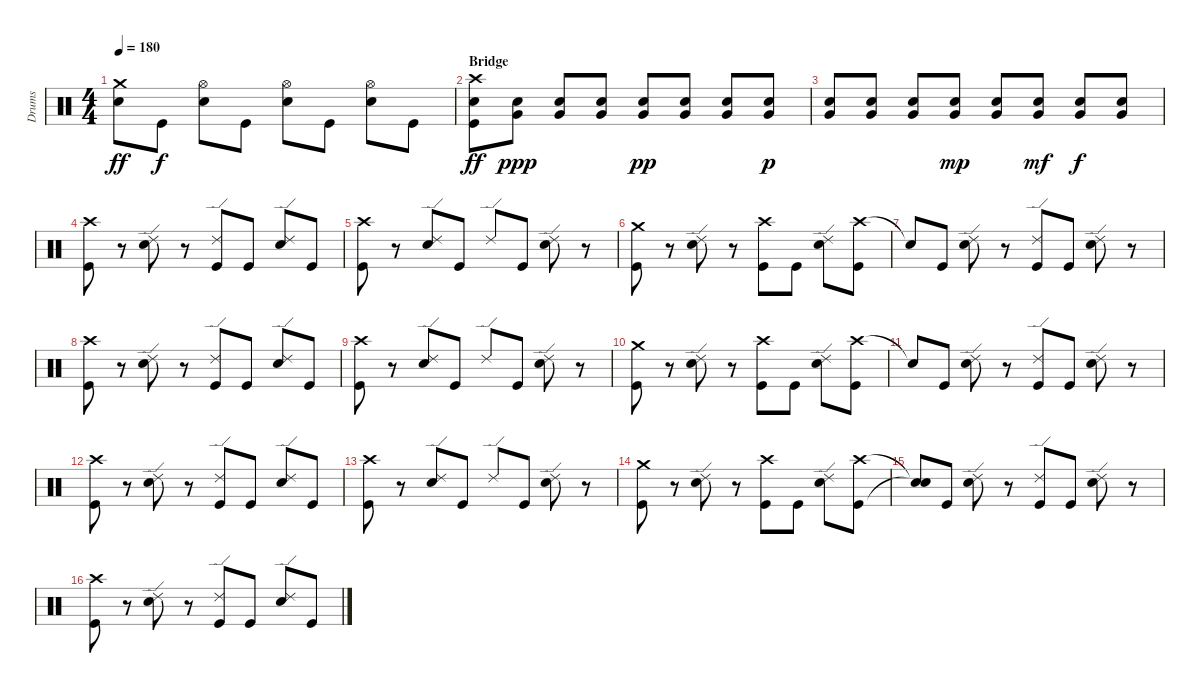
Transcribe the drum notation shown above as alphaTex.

\track ("Drums" "Drums") {instrument percussion}
\staff {score}
\articulation defaults
\ts (4 4)
\tempo 180
\clef neutral
\ks c
("Crash medium (hit)" "Snare (hit) 2").8{dy ff} "Kick (hit)".8{dy f} ("Hi-Hat (open)" "Snare (hit) 2").8 "Kick (hit)".8 ("Hi-Hat (open)" "Snare (hit) 2").8 "Kick (hit)".8 ("Hi-Hat (open)" "Snare (hit) 2").8 "Kick (hit)".8 |
\section ("" "Bridge")
("Crash high (hit)" "Snare (hit) 2" "Kick (hit)").8{dy ff} ("Very Low Tom (hit)" "Snare (hit) 2").8{dy ppp} ("Very Low Tom (hit)" "Snare (hit) 2").8 ("Very Low Tom (hit)" "Snare (hit) 2").8 ("Very Low Tom (hit)" "Snare (hit) 2").8{dy pp} ("Very Low Tom (hit)" "Snare (hit) 2").8 ("Very Low Tom (hit)" "Snare (hit) 2").8 ("Very Low Tom (hit)" "Snare (hit) 2").8{dy p} |
("Very Low Tom (hit)" "Snare (hit) 2").8 ("Very Low Tom (hit)" "Snare (hit) 2").8 ("Very Low Tom (hit)" "Snare (hit) 2").8 ("Very Low Tom (hit)" "Snare (hit) 2").8{dy mp} ("Very Low Tom (hit)" "Snare (hit) 2").8 ("Very Low Tom (hit)" "Snare (hit) 2").8{dy mf} ("Very Low Tom (hit)" "Snare (hit) 2").8{dy f} ("Very Low Tom (hit)" "Snare (hit) 2").8 |
("Crash high (hit)" "Kick (hit)").8 r.8 ("Ride (edge) 2" "Snare (hit) 2").8 r.8 ("Ride (edge) 2" "Kick (hit)").8 "Kick (hit)".8 ("Ride (edge) 2" "Snare (hit) 2").8 "Kick (hit)".8 |
("Crash high (hit)" "Kick (hit)").8 r.8 ("Ride (edge) 2" "Snare (hit) 2").8 "Kick (hit)".8 "Ride (edge) 2".8 "Kick (hit)".8 ("Ride (edge) 2" "Snare (hit) 2").8 r.8 |
("Crash medium (hit)" "Kick (hit)").8 r.8 ("Ride (edge) 2" "Snare (hit) 2").8 r.8 ("Crash high (hit)" "Kick (hit)").8 "Kick (hit)".8 ("Ride (edge) 2" "Snare (hit) 2").8 ("Crash high (hit)" "Kick (hit)").8 |
"Snare (hit)"{t}.8 "Kick (hit)".8 ("Ride (edge) 2" "Snare (hit) 2").8 r.8 ("Ride (edge) 2" "Kick (hit)").8 "Kick (hit)".8 ("Ride (edge) 2" "Snare (hit) 2").8 r.8 |
("Crash high (hit)" "Kick (hit)").8 r.8 ("Ride (edge) 2" "Snare (hit) 2").8 r.8 ("Ride (edge) 2" "Kick (hit)").8 "Kick (hit)".8 ("Ride (edge) 2" "Snare (hit) 2").8 "Kick (hit)".8 |
("Crash high (hit)" "Kick (hit)").8 r.8 ("Ride (edge) 2" "Snare (hit) 2").8 "Kick (hit)".8 "Ride (edge) 2".8 "Kick (hit)".8 ("Ride (edge) 2" "Snare (hit) 2").8 r.8 |
("Crash medium (hit)" "Kick (hit)").8 r.8 ("Ride (edge) 2" "Snare (hit) 2").8 r.8 ("Crash high (hit)" "Kick (hit)").8 "Kick (hit)".8 ("Ride (edge) 2" "Snare (hit) 2").8 ("Crash high (hit)" "Kick (hit)").8 |
"Snare (hit)"{t}.8 "Kick (hit)".8 ("Ride (edge) 2" "Snare (hit) 2").8 r.8 ("Ride (edge) 2" "Kick (hit)").8 "Kick (hit)".8 ("Ride (edge) 2" "Snare (hit) 2").8 r.8 |
("Crash high (hit)" "Kick (hit)").8 r.8 ("Ride (edge) 2" "Snare (hit) 2").8 r.8 ("Ride (edge) 2" "Kick (hit)").8 "Kick (hit)".8 ("Ride (edge) 2" "Snare (hit) 2").8 "Kick (hit)".8 |
("Crash high (hit)" "Kick (hit)").8 r.8 ("Ride (edge) 2" "Snare (hit) 2").8 "Kick (hit)".8 "Ride (edge) 2".8 "Kick (hit)".8 ("Ride (edge) 2" "Snare (hit) 2").8 r.8 |
("Crash medium (hit)" "Kick (hit)").8 r.8 ("Ride (edge) 2" "Snare (hit) 2").8 r.8 ("Crash high (hit)" "Kick (hit)").8 "Kick (hit)".8 ("Ride (edge) 2" "Snare (hit) 2").8 ("Crash high (hit)" "Kick (hit)").8 |
("Snare (hit)"{t} "Snare (hit)"{t}).8 "Kick (hit)".8 ("Ride (edge) 2" "Snare (hit) 2").8 r.8 ("Ride (edge) 2" "Kick (hit)").8 "Kick (hit)".8 ("Ride (edge) 2" "Snare (hit) 2").8 r.8 |
("Crash high (hit)" "Kick (hit)").8 r.8 ("Ride (edge) 2" "Snare (hit) 2").8 r.8 ("Ride (edge) 2" "Kick (hit)").8 "Kick (hit)".8 ("Ride (edge) 2" "Snare (hit) 2").8 "Kick (hit)".8
